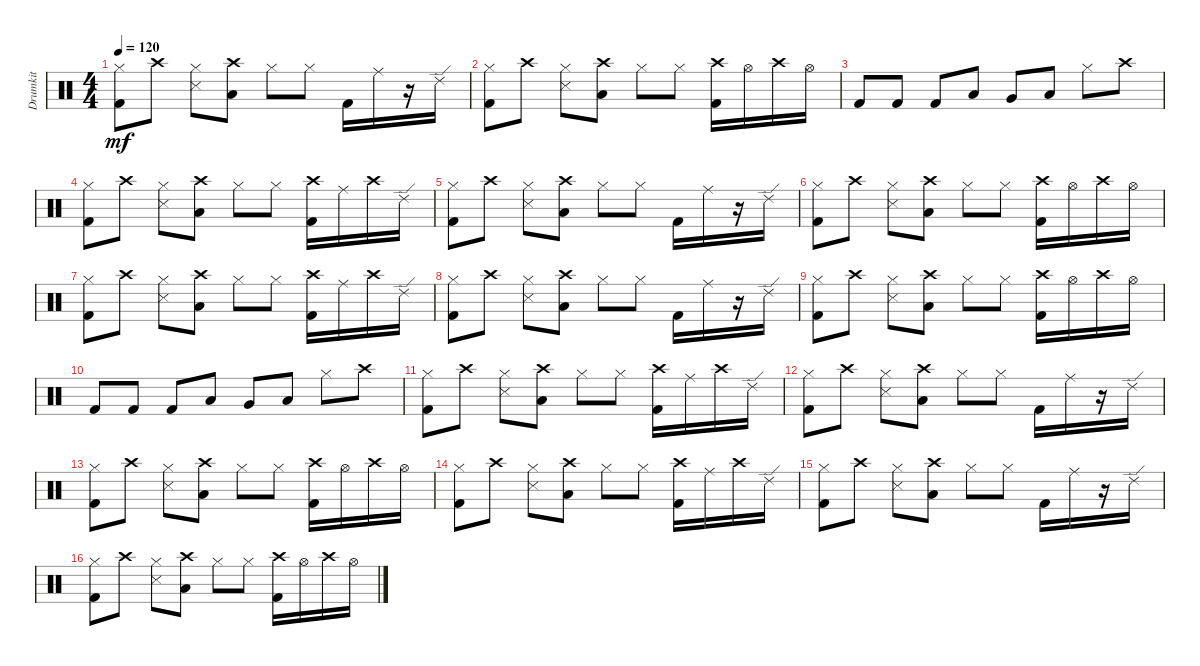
\track ("Drumkit" "Drumkit") {instrument percussion}
\staff {score}
\articulation defaults
\ts (4 4)
\tempo 120
\clef neutral
\ks c
("Hi-Hat (closed)" "Kick (hit) 2").8{dy mf} "Crash high (hit)".8 ("Hi-Hat (closed)" "Snare (side stick) 3").8 ("Crash high (hit)" "Low Floor Tom (hit)").8 "Hi-Hat (closed)".8 "Hi-Hat (closed)".8 "Kick (hit) 2".16 "Ride (middle)".16 r.16 "Ride (edge) 2".16 |
("Hi-Hat (closed)" "Kick (hit) 2").8 "Crash high (hit)".8 ("Hi-Hat (closed)" "Snare (side stick) 3").8 ("Crash high (hit)" "Low Floor Tom (hit)").8 "Hi-Hat (closed)".8 "Hi-Hat (closed)".8 ("Crash high (hit)" "Kick (hit) 2").16 "Hi-Hat (open)".16 "Crash high (hit)".16 "Hi-Hat (open)".16 |
"Kick (hit) 2".8 "Kick (hit) 2".8 "Kick (hit) 2".8 "Low Floor Tom (hit)".8 "Very Low Tom (hit)".8 "Low Tom (hit)".8 "Hi-Hat (closed)".8 "Crash high (hit)".8 |
("Hi-Hat (closed)" "Kick (hit) 2").8 "Crash high (hit)".8 ("Hi-Hat (closed)" "Snare (side stick) 3").8 ("Crash high (hit)" "Low Floor Tom (hit)").8 "Hi-Hat (closed)".8 "Hi-Hat (closed)".8 ("Crash high (hit)" "Kick (hit) 2").16 "Ride (middle)".16 "Crash high (hit)".16 "Ride (edge) 2".16 |
("Hi-Hat (closed)" "Kick (hit) 2").8 "Crash high (hit)".8 ("Hi-Hat (closed)" "Snare (side stick) 3").8 ("Crash high (hit)" "Low Floor Tom (hit)").8 "Hi-Hat (closed)".8 "Hi-Hat (closed)".8 "Kick (hit) 2".16 "Ride (middle)".16 r.16 "Ride (edge) 2".16 |
("Hi-Hat (closed)" "Kick (hit) 2").8 "Crash high (hit)".8 ("Hi-Hat (closed)" "Snare (side stick) 3").8 ("Crash high (hit)" "Low Floor Tom (hit)").8 "Hi-Hat (closed)".8 "Hi-Hat (closed)".8 ("Crash high (hit)" "Kick (hit) 2").16 "Hi-Hat (open)".16 "Crash high (hit)".16 "Hi-Hat (open)".16 |
("Hi-Hat (closed)" "Kick (hit) 2").8 "Crash high (hit)".8 ("Hi-Hat (closed)" "Snare (side stick) 3").8 ("Crash high (hit)" "Low Floor Tom (hit)").8 "Hi-Hat (closed)".8 "Hi-Hat (closed)".8 ("Crash high (hit)" "Kick (hit) 2").16 "Ride (middle)".16 "Crash high (hit)".16 "Ride (edge) 2".16 |
("Hi-Hat (closed)" "Kick (hit) 2").8 "Crash high (hit)".8 ("Hi-Hat (closed)" "Snare (side stick) 3").8 ("Crash high (hit)" "Low Floor Tom (hit)").8 "Hi-Hat (closed)".8 "Hi-Hat (closed)".8 "Kick (hit) 2".16 "Ride (middle)".16 r.16 "Ride (edge) 2".16 |
("Hi-Hat (closed)" "Kick (hit) 2").8 "Crash high (hit)".8 ("Hi-Hat (closed)" "Snare (side stick) 3").8 ("Crash high (hit)" "Low Floor Tom (hit)").8 "Hi-Hat (closed)".8 "Hi-Hat (closed)".8 ("Crash high (hit)" "Kick (hit) 2").16 "Hi-Hat (open)".16 "Crash high (hit)".16 "Hi-Hat (open)".16 |
"Kick (hit) 2".8 "Kick (hit) 2".8 "Kick (hit) 2".8 "Low Floor Tom (hit)".8 "Very Low Tom (hit)".8 "Low Tom (hit)".8 "Hi-Hat (closed)".8 "Crash high (hit)".8 |
("Hi-Hat (closed)" "Kick (hit) 2").8 "Crash high (hit)".8 ("Hi-Hat (closed)" "Snare (side stick) 3").8 ("Crash high (hit)" "Low Floor Tom (hit)").8 "Hi-Hat (closed)".8 "Hi-Hat (closed)".8 ("Crash high (hit)" "Kick (hit) 2").16 "Ride (middle)".16 "Crash high (hit)".16 "Ride (edge) 2".16 |
("Hi-Hat (closed)" "Kick (hit) 2").8 "Crash high (hit)".8 ("Hi-Hat (closed)" "Snare (side stick) 3").8 ("Crash high (hit)" "Low Floor Tom (hit)").8 "Hi-Hat (closed)".8 "Hi-Hat (closed)".8 "Kick (hit) 2".16 "Ride (middle)".16 r.16 "Ride (edge) 2".16 |
("Hi-Hat (closed)" "Kick (hit) 2").8 "Crash high (hit)".8 ("Hi-Hat (closed)" "Snare (side stick) 3").8 ("Crash high (hit)" "Low Floor Tom (hit)").8 "Hi-Hat (closed)".8 "Hi-Hat (closed)".8 ("Crash high (hit)" "Kick (hit) 2").16 "Hi-Hat (open)".16 "Crash high (hit)".16 "Hi-Hat (open)".16 |
("Hi-Hat (closed)" "Kick (hit) 2").8 "Crash high (hit)".8 ("Hi-Hat (closed)" "Snare (side stick) 3").8 ("Crash high (hit)" "Low Floor Tom (hit)").8 "Hi-Hat (closed)".8 "Hi-Hat (closed)".8 ("Crash high (hit)" "Kick (hit) 2").16 "Ride (middle)".16 "Crash high (hit)".16 "Ride (edge) 2".16 |
("Hi-Hat (closed)" "Kick (hit) 2").8 "Crash high (hit)".8 ("Hi-Hat (closed)" "Snare (side stick) 3").8 ("Crash high (hit)" "Low Floor Tom (hit)").8 "Hi-Hat (closed)".8 "Hi-Hat (closed)".8 "Kick (hit) 2".16 "Ride (middle)".16 r.16 "Ride (edge) 2".16 |
("Hi-Hat (closed)" "Kick (hit) 2").8 "Crash high (hit)".8 ("Hi-Hat (closed)" "Snare (side stick) 3").8 ("Crash high (hit)" "Low Floor Tom (hit)").8 "Hi-Hat (closed)".8 "Hi-Hat (closed)".8 ("Crash high (hit)" "Kick (hit) 2").16 "Hi-Hat (open)".16 "Crash high (hit)".16 "Hi-Hat (open)".16
